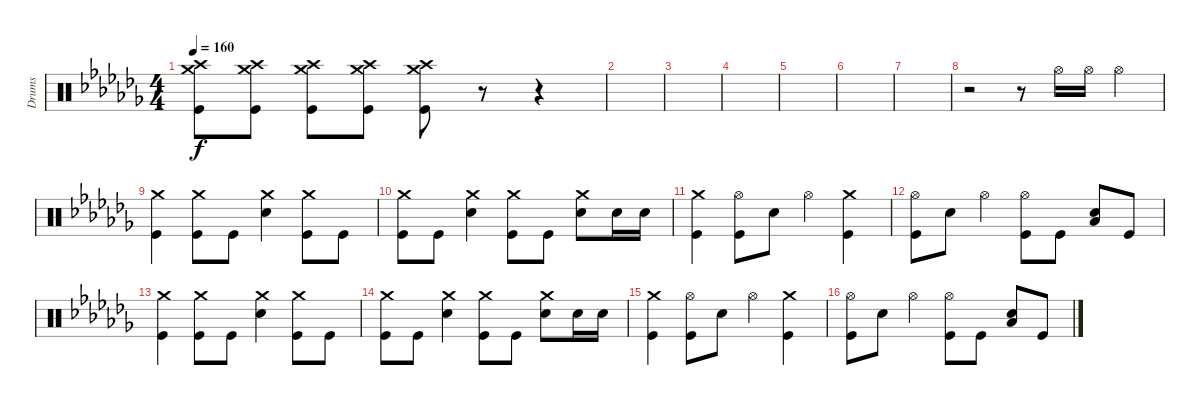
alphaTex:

\track ("Drums" "Drums") {instrument percussion}
\staff {score}
\articulation defaults
\ts (4 4)
\tempo 160
\clef neutral
\ks cb
("Crash medium (hit)" "Crash high (hit)" "Kick (hit)").8{dy f} ("Crash medium (hit)" "Crash high (hit)" "Kick (hit)").8 ("Crash medium (hit)" "Crash high (hit)" "Kick (hit)").8 ("Crash medium (hit)" "Crash high (hit)" "Kick (hit)").8 ("Crash medium (hit)" "Crash high (hit)" "Kick (hit)").8 r.8 r.4 |
|
|
|
|
|
|
r.2 r.8 "Hi-Hat (open)".16 "Hi-Hat (open)".16 "Hi-Hat (open)".4 |
("Crash medium (hit)" "Kick (hit)").4 ("Crash medium (hit)" "Kick (hit)").8 "Kick (hit)".8 ("Crash medium (hit)" "Electric Snare (hit)").4 ("Crash medium (hit)" "Kick (hit)").8 "Kick (hit)".8 |
("Crash medium (hit)" "Kick (hit)").8 "Kick (hit)".8 ("Crash medium (hit)" "Electric Snare (hit)").4 ("Crash medium (hit)" "Kick (hit)").8 "Kick (hit)".8 ("Crash medium (hit)" "Electric Snare (hit)").8 "Electric Snare (hit)".16 "Electric Snare (hit)".16 |
("Crash medium (hit)" "Kick (hit)").4 ("Hi-Hat (open)" "Kick (hit)").8 "Electric Snare (hit)".8 "Hi-Hat (open)".4 ("Crash medium (hit)" "Kick (hit)").4 |
("Hi-Hat (open)" "Kick (hit)").8 "Electric Snare (hit)".8 "Hi-Hat (open)".4 ("Hi-Hat (open)" "Kick (hit)").8 "Kick (hit)".8 ("Electric Snare (hit)" "Low Floor Tom (hit)").8 "Kick (hit)".8 |
("Crash medium (hit)" "Kick (hit)").4 ("Crash medium (hit)" "Kick (hit)").8 "Kick (hit)".8 ("Crash medium (hit)" "Electric Snare (hit)").4 ("Crash medium (hit)" "Kick (hit)").8 "Kick (hit)".8 |
("Crash medium (hit)" "Kick (hit)").8 "Kick (hit)".8 ("Crash medium (hit)" "Electric Snare (hit)").4 ("Crash medium (hit)" "Kick (hit)").8 "Kick (hit)".8 ("Crash medium (hit)" "Electric Snare (hit)").8 "Electric Snare (hit)".16 "Electric Snare (hit)".16 |
("Crash medium (hit)" "Kick (hit)").4 ("Hi-Hat (open)" "Kick (hit)").8 "Electric Snare (hit)".8 "Hi-Hat (open)".4 ("Crash medium (hit)" "Kick (hit)").4 |
("Hi-Hat (open)" "Kick (hit)").8 "Electric Snare (hit)".8 "Hi-Hat (open)".4 ("Hi-Hat (open)" "Kick (hit)").8 "Kick (hit)".8 ("Electric Snare (hit)" "Low Floor Tom (hit)").8 "Kick (hit)".8
